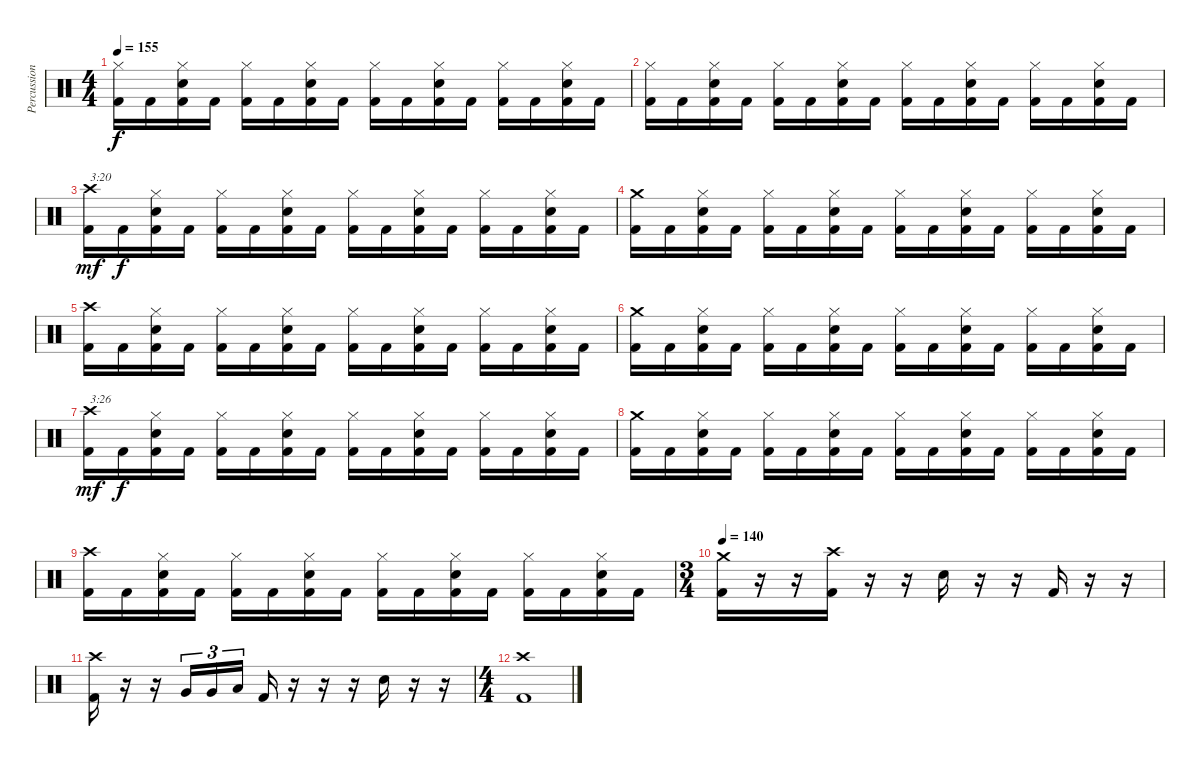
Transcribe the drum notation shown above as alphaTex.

\track ("Percussion" "Percussion") {instrument percussion}
\staff {score}
\articulation defaults
\ts (4 4)
\tempo 155
\clef neutral
\ks c
("Hi-Hat (closed)" "Kick (hit) 2").16{dy f} "Kick (hit) 2".16 ("Hi-Hat (closed)" "Electric Snare (hit)" "Kick (hit) 2").16 "Kick (hit) 2".16 ("Hi-Hat (closed)" "Kick (hit) 2").16 "Kick (hit) 2".16 ("Hi-Hat (closed)" "Electric Snare (hit)" "Kick (hit) 2").16 "Kick (hit) 2".16 ("Hi-Hat (closed)" "Kick (hit) 2").16 "Kick (hit) 2".16 ("Hi-Hat (closed)" "Electric Snare (hit)" "Kick (hit) 2").16 "Kick (hit) 2".16 ("Hi-Hat (closed)" "Kick (hit) 2").16 "Kick (hit) 2".16 ("Hi-Hat (closed)" "Electric Snare (hit)" "Kick (hit) 2").16 "Kick (hit) 2".16 |
("Hi-Hat (closed)" "Kick (hit) 2").16 "Kick (hit) 2".16 ("Hi-Hat (closed)" "Electric Snare (hit)" "Kick (hit) 2").16 "Kick (hit) 2".16 ("Hi-Hat (closed)" "Kick (hit) 2").16 "Kick (hit) 2".16 ("Hi-Hat (closed)" "Electric Snare (hit)" "Kick (hit) 2").16 "Kick (hit) 2".16 ("Hi-Hat (closed)" "Kick (hit) 2").16 "Kick (hit) 2".16 ("Hi-Hat (closed)" "Electric Snare (hit)" "Kick (hit) 2").16 "Kick (hit) 2".16 ("Hi-Hat (closed)" "Kick (hit) 2").16 "Kick (hit) 2".16 ("Hi-Hat (closed)" "Electric Snare (hit)" "Kick (hit) 2").16 "Kick (hit) 2".16 |
("Crash high (hit)" "Kick (hit) 2").16{txt "3:20" dy mf} "Kick (hit) 2".16{dy f} ("Hi-Hat (closed)" "Electric Snare (hit)" "Kick (hit) 2").16 "Kick (hit) 2".16 ("Hi-Hat (closed)" "Kick (hit) 2").16 "Kick (hit) 2".16 ("Hi-Hat (closed)" "Electric Snare (hit)" "Kick (hit) 2").16 "Kick (hit) 2".16 ("Hi-Hat (closed)" "Kick (hit) 2").16 "Kick (hit) 2".16 ("Hi-Hat (closed)" "Electric Snare (hit)" "Kick (hit) 2").16 "Kick (hit) 2".16 ("Hi-Hat (closed)" "Kick (hit) 2").16 "Kick (hit) 2".16 ("Hi-Hat (closed)" "Electric Snare (hit)" "Kick (hit) 2").16 "Kick (hit) 2".16 |
("Crash medium (hit)" "Kick (hit) 2").16 "Kick (hit) 2".16 ("Hi-Hat (closed)" "Electric Snare (hit)" "Kick (hit) 2").16 "Kick (hit) 2".16 ("Hi-Hat (closed)" "Kick (hit) 2").16 "Kick (hit) 2".16 ("Hi-Hat (closed)" "Electric Snare (hit)" "Kick (hit) 2").16 "Kick (hit) 2".16 ("Hi-Hat (closed)" "Kick (hit) 2").16 "Kick (hit) 2".16 ("Hi-Hat (closed)" "Electric Snare (hit)" "Kick (hit) 2").16 "Kick (hit) 2".16 ("Hi-Hat (closed)" "Kick (hit) 2").16 "Kick (hit) 2".16 ("Hi-Hat (closed)" "Electric Snare (hit)" "Kick (hit) 2").16 "Kick (hit) 2".16 |
("Crash high (hit)" "Kick (hit) 2").16 "Kick (hit) 2".16 ("Hi-Hat (closed)" "Electric Snare (hit)" "Kick (hit) 2").16 "Kick (hit) 2".16 ("Hi-Hat (closed)" "Kick (hit) 2").16 "Kick (hit) 2".16 ("Hi-Hat (closed)" "Electric Snare (hit)" "Kick (hit) 2").16 "Kick (hit) 2".16 ("Hi-Hat (closed)" "Kick (hit) 2").16 "Kick (hit) 2".16 ("Hi-Hat (closed)" "Electric Snare (hit)" "Kick (hit) 2").16 "Kick (hit) 2".16 ("Hi-Hat (closed)" "Kick (hit) 2").16 "Kick (hit) 2".16 ("Hi-Hat (closed)" "Electric Snare (hit)" "Kick (hit) 2").16 "Kick (hit) 2".16 |
("Crash medium (hit)" "Kick (hit) 2").16 "Kick (hit) 2".16 ("Hi-Hat (closed)" "Electric Snare (hit)" "Kick (hit) 2").16 "Kick (hit) 2".16 ("Hi-Hat (closed)" "Kick (hit) 2").16 "Kick (hit) 2".16 ("Hi-Hat (closed)" "Electric Snare (hit)" "Kick (hit) 2").16 "Kick (hit) 2".16 ("Hi-Hat (closed)" "Kick (hit) 2").16 "Kick (hit) 2".16 ("Hi-Hat (closed)" "Electric Snare (hit)" "Kick (hit) 2").16 "Kick (hit) 2".16 ("Hi-Hat (closed)" "Kick (hit) 2").16 "Kick (hit) 2".16 ("Hi-Hat (closed)" "Electric Snare (hit)" "Kick (hit) 2").16 "Kick (hit) 2".16 |
("Crash high (hit)" "Kick (hit) 2").16{txt "3:26" dy mf} "Kick (hit) 2".16{dy f} ("Hi-Hat (closed)" "Electric Snare (hit)" "Kick (hit) 2").16 "Kick (hit) 2".16 ("Hi-Hat (closed)" "Kick (hit) 2").16 "Kick (hit) 2".16 ("Hi-Hat (closed)" "Electric Snare (hit)" "Kick (hit) 2").16 "Kick (hit) 2".16 ("Hi-Hat (closed)" "Kick (hit) 2").16 "Kick (hit) 2".16 ("Hi-Hat (closed)" "Electric Snare (hit)" "Kick (hit) 2").16 "Kick (hit) 2".16 ("Hi-Hat (closed)" "Kick (hit) 2").16 "Kick (hit) 2".16 ("Hi-Hat (closed)" "Electric Snare (hit)" "Kick (hit) 2").16 "Kick (hit) 2".16 |
("Crash medium (hit)" "Kick (hit) 2").16 "Kick (hit) 2".16 ("Hi-Hat (closed)" "Electric Snare (hit)" "Kick (hit) 2").16 "Kick (hit) 2".16 ("Hi-Hat (closed)" "Kick (hit) 2").16 "Kick (hit) 2".16 ("Hi-Hat (closed)" "Electric Snare (hit)" "Kick (hit) 2").16 "Kick (hit) 2".16 ("Hi-Hat (closed)" "Kick (hit) 2").16 "Kick (hit) 2".16 ("Hi-Hat (closed)" "Electric Snare (hit)" "Kick (hit) 2").16 "Kick (hit) 2".16 ("Hi-Hat (closed)" "Kick (hit) 2").16 "Kick (hit) 2".16 ("Hi-Hat (closed)" "Electric Snare (hit)" "Kick (hit) 2").16 "Kick (hit) 2".16 |
("Crash high (hit)" "Kick (hit) 2").16 "Kick (hit) 2".16 ("Hi-Hat (closed)" "Electric Snare (hit)" "Kick (hit) 2").16 "Kick (hit) 2".16 ("Hi-Hat (closed)" "Kick (hit) 2").16 "Kick (hit) 2".16 ("Hi-Hat (closed)" "Electric Snare (hit)" "Kick (hit) 2").16 "Kick (hit) 2".16 ("Hi-Hat (closed)" "Kick (hit) 2").16 "Kick (hit) 2".16 ("Hi-Hat (closed)" "Electric Snare (hit)" "Kick (hit) 2").16 "Kick (hit) 2".16 ("Hi-Hat (closed)" "Kick (hit) 2").16 "Kick (hit) 2".16 ("Hi-Hat (closed)" "Electric Snare (hit)" "Kick (hit) 2").16 "Kick (hit) 2".16 |
\ts (3 4)
\tempo 140
("Crash medium (hit)" "Kick (hit) 2").16 r.16 r.16 ("Crash high (hit)" "Kick (hit) 2").16 r.16 r.16 "Electric Snare (hit)".16 r.16 r.16 "Kick (hit) 2".16 r.16 r.16 |
("Crash high (hit)" "Kick (hit) 2").16 r.16 r.16 "Very Low Tom (hit)".16{tu (3 2)} "Very Low Tom (hit)".16{tu (3 2)} "Low Floor Tom (hit)".16{tu (3 2)} "Kick (hit) 2".16 r.16 r.16 r.16 "Electric Snare (hit)".16 r.16 r.16 |
\ts (4 4)
("Crash high (hit)" "Kick (hit) 2").1
